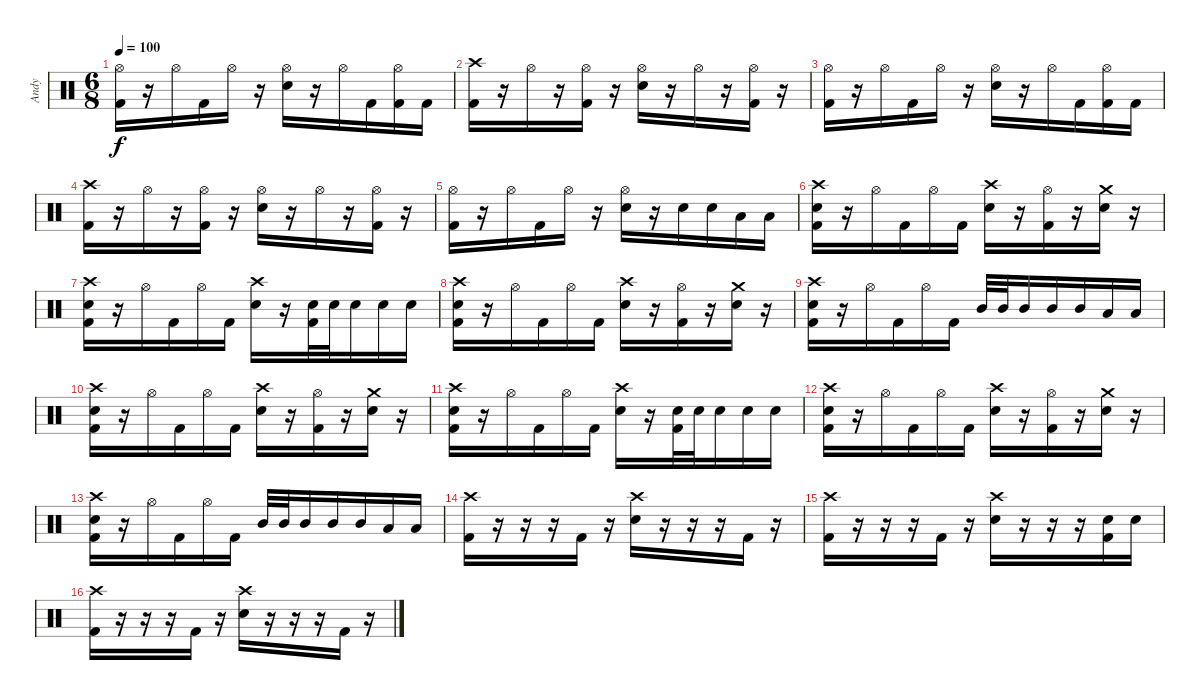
\track ("Andy" "Andy") {instrument percussion}
\staff {score}
\articulation defaults
\ts (6 8)
\tempo 100
\clef neutral
\ks c
("Hi-Hat (open)" "Kick (hit) 2").16{dy f} r.16 "Hi-Hat (open)".16 "Kick (hit) 2".16 "Hi-Hat (open)".16 r.16 ("Hi-Hat (open)" "Electric Snare (hit)").16 r.16 "Hi-Hat (open)".16 "Kick (hit) 2".16 ("Hi-Hat (open)" "Kick (hit) 2").16 "Kick (hit) 2".16 |
("Crash high (hit)" "Kick (hit) 2").16 r.16 "Hi-Hat (open)".16 r.16 ("Hi-Hat (open)" "Kick (hit) 2").16 r.16 ("Hi-Hat (open)" "Electric Snare (hit)").16 r.16 "Hi-Hat (open)".16 r.16 ("Hi-Hat (open)" "Kick (hit) 2").16 r.16 |
("Hi-Hat (open)" "Kick (hit) 2").16 r.16 "Hi-Hat (open)".16 "Kick (hit) 2".16 "Hi-Hat (open)".16 r.16 ("Hi-Hat (open)" "Electric Snare (hit)").16 r.16 "Hi-Hat (open)".16 "Kick (hit) 2".16 ("Hi-Hat (open)" "Kick (hit) 2").16 "Kick (hit) 2".16 |
("Crash high (hit)" "Kick (hit) 2").16 r.16 "Hi-Hat (open)".16 r.16 ("Hi-Hat (open)" "Kick (hit) 2").16 r.16 ("Hi-Hat (open)" "Electric Snare (hit)").16 r.16 "Hi-Hat (open)".16 r.16 ("Hi-Hat (open)" "Kick (hit) 2").16 r.16 |
("Hi-Hat (open)" "Kick (hit) 2").16 r.16 "Hi-Hat (open)".16 "Kick (hit) 2".16 "Hi-Hat (open)".16 r.16 ("Hi-Hat (open)" "Electric Snare (hit)").16 r.16 "Electric Snare (hit)".16 "Electric Snare (hit)".16 "Low Tom (hit)".16 "Low Tom (hit)".16 |
("Crash high (hit)" "Electric Snare (hit)" "Kick (hit) 2").16 r.16 "Hi-Hat (open)".16 "Kick (hit) 2".16 "Hi-Hat (open)".16 "Kick (hit) 2".16 ("Crash high (hit)" "Electric Snare (hit)").16 r.16 ("Hi-Hat (open)" "Kick (hit) 2").16 r.16 ("Crash medium (hit)" "Electric Snare (hit)").16 r.16 |
("Crash high (hit)" "Electric Snare (hit)" "Kick (hit) 2").16 r.16 "Hi-Hat (open)".16 "Kick (hit) 2".16 "Hi-Hat (open)".16 "Kick (hit) 2".16 ("Crash high (hit)" "Electric Snare (hit)").16 r.16 ("Electric Snare (hit)" "Kick (hit) 2").32 "Electric Snare (hit)".32 "Electric Snare (hit)".16 "Electric Snare (hit)".16 "Electric Snare (hit)".16 |
("Crash high (hit)" "Electric Snare (hit)" "Kick (hit) 2").16 r.16 "Hi-Hat (open)".16 "Kick (hit) 2".16 "Hi-Hat (open)".16 "Kick (hit) 2".16 ("Crash high (hit)" "Electric Snare (hit)").16 r.16 ("Hi-Hat (open)" "Kick (hit) 2").16 r.16 ("Crash medium (hit)" "Electric Snare (hit)").16 r.16 |
("Crash high (hit)" "Electric Snare (hit)" "Kick (hit) 2").16 r.16 "Hi-Hat (open)".16 "Kick (hit) 2".16 "Hi-Hat (open)".16 "Kick (hit) 2".16 "Mid Tom (hit)".32 "Mid Tom (hit)".32 "Mid Tom (hit)".16 "Mid Tom (hit)".16 "Mid Tom (hit)".16 "Low Tom (hit)".16 "Low Tom (hit)".16 |
("Crash high (hit)" "Electric Snare (hit)" "Kick (hit) 2").16 r.16 "Hi-Hat (open)".16 "Kick (hit) 2".16 "Hi-Hat (open)".16 "Kick (hit) 2".16 ("Crash high (hit)" "Electric Snare (hit)").16 r.16 ("Hi-Hat (open)" "Kick (hit) 2").16 r.16 ("Crash medium (hit)" "Electric Snare (hit)").16 r.16 |
("Crash high (hit)" "Electric Snare (hit)" "Kick (hit) 2").16 r.16 "Hi-Hat (open)".16 "Kick (hit) 2".16 "Hi-Hat (open)".16 "Kick (hit) 2".16 ("Crash high (hit)" "Electric Snare (hit)").16 r.16 ("Electric Snare (hit)" "Kick (hit) 2").32 "Electric Snare (hit)".32 "Electric Snare (hit)".16 "Electric Snare (hit)".16 "Electric Snare (hit)".16 |
("Crash high (hit)" "Electric Snare (hit)" "Kick (hit) 2").16 r.16 "Hi-Hat (open)".16 "Kick (hit) 2".16 "Hi-Hat (open)".16 "Kick (hit) 2".16 ("Crash high (hit)" "Electric Snare (hit)").16 r.16 ("Hi-Hat (open)" "Kick (hit) 2").16 r.16 ("Crash medium (hit)" "Electric Snare (hit)").16 r.16 |
("Crash high (hit)" "Electric Snare (hit)" "Kick (hit) 2").16 r.16 "Hi-Hat (open)".16 "Kick (hit) 2".16 "Hi-Hat (open)".16 "Kick (hit) 2".16 "Mid Tom (hit)".32 "Mid Tom (hit)".32 "Mid Tom (hit)".16 "Mid Tom (hit)".16 "Mid Tom (hit)".16 "Low Tom (hit)".16 "Low Tom (hit)".16 |
("Crash high (hit)" "Kick (hit) 2").16 r.16 r.16 r.16 "Kick (hit) 2".16 r.16 ("Crash high (hit)" "Electric Snare (hit)").16 r.16 r.16 r.16 "Kick (hit) 2".16 r.16 |
("Crash high (hit)" "Kick (hit) 2").16 r.16 r.16 r.16 "Kick (hit) 2".16 r.16 ("Crash high (hit)" "Electric Snare (hit)").16 r.16 r.16 r.16 ("Electric Snare (hit)" "Kick (hit) 2").16 "Electric Snare (hit)".16 |
("Crash high (hit)" "Kick (hit) 2").16 r.16 r.16 r.16 "Kick (hit) 2".16 r.16 ("Crash high (hit)" "Electric Snare (hit)").16 r.16 r.16 r.16 "Kick (hit) 2".16 r.16
